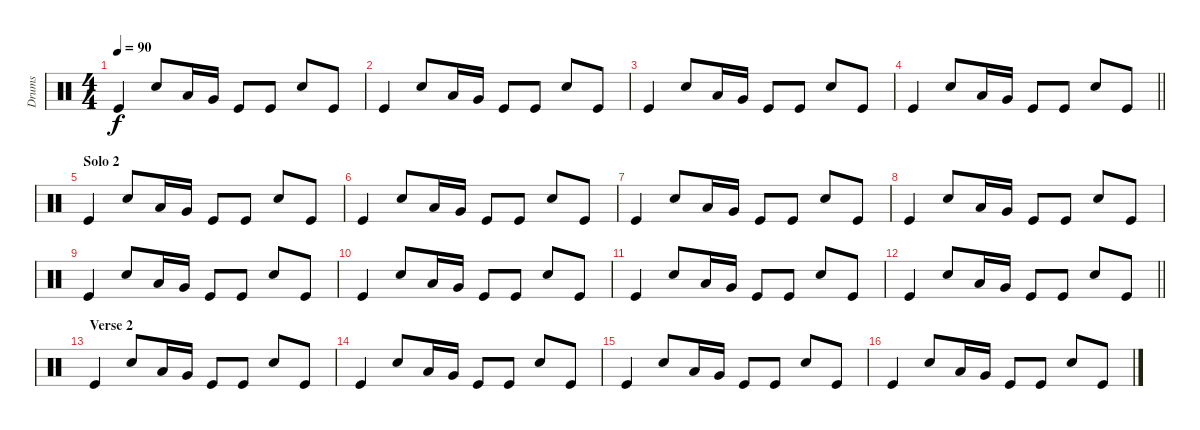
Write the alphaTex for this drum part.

\track ("Drums" "Drums") {instrument percussion}
\staff {score}
\articulation defaults
\ts (4 4)
\tempo 90
\clef neutral
\ks aminor "Kick (hit)".4{dy f} "Hand Clap (hit)".8 "Low Tom (hit)".16 "Very Low Tom (hit)".16 "Kick (hit)".8 "Kick (hit)".8 "Hand Clap (hit)".8 "Kick (hit)".8
|
"Kick (hit)".4 "Hand Clap (hit)".8 "Low Tom (hit)".16 "Very Low Tom (hit)".16 "Kick (hit)".8 "Kick (hit)".8 "Hand Clap (hit)".8 "Kick (hit)".8 |
"Kick (hit)".4 "Hand Clap (hit)".8 "Low Tom (hit)".16 "Very Low Tom (hit)".16 "Kick (hit)".8 "Kick (hit)".8 "Hand Clap (hit)".8 "Kick (hit)".8 |
\barLineRight lightlight "Kick (hit)".4 "Hand Clap (hit)".8 "Low Tom (hit)".16 "Very Low Tom (hit)".16 "Kick (hit)".8 "Kick (hit)".8 "Hand Clap (hit)".8 "Kick (hit)".8
|
\section ("" "Solo 2")
"Kick (hit)".4 "Hand Clap (hit)".8 "Low Tom (hit)".16 "Very Low Tom (hit)".16 "Kick (hit)".8 "Kick (hit)".8 "Hand Clap (hit)".8 "Kick (hit)".8 |
"Kick (hit)".4 "Hand Clap (hit)".8 "Low Tom (hit)".16 "Very Low Tom (hit)".16 "Kick (hit)".8 "Kick (hit)".8 "Hand Clap (hit)".8 "Kick (hit)".8 |
"Kick (hit)".4 "Hand Clap (hit)".8 "Low Tom (hit)".16 "Very Low Tom (hit)".16 "Kick (hit)".8 "Kick (hit)".8 "Hand Clap (hit)".8 "Kick (hit)".8 |
"Kick (hit)".4 "Hand Clap (hit)".8 "Low Tom (hit)".16 "Very Low Tom (hit)".16 "Kick (hit)".8 "Kick (hit)".8 "Hand Clap (hit)".8 "Kick (hit)".8 |
"Kick (hit)".4 "Hand Clap (hit)".8 "Low Tom (hit)".16 "Very Low Tom (hit)".16 "Kick (hit)".8 "Kick (hit)".8 "Hand Clap (hit)".8 "Kick (hit)".8 |
"Kick (hit)".4 "Hand Clap (hit)".8 "Low Tom (hit)".16 "Very Low Tom (hit)".16 "Kick (hit)".8 "Kick (hit)".8 "Hand Clap (hit)".8 "Kick (hit)".8 |
"Kick (hit)".4 "Hand Clap (hit)".8 "Low Tom (hit)".16 "Very Low Tom (hit)".16 "Kick (hit)".8 "Kick (hit)".8 "Hand Clap (hit)".8 "Kick (hit)".8 |
\barLineRight lightlight "Kick (hit)".4 "Hand Clap (hit)".8 "Low Tom (hit)".16 "Very Low Tom (hit)".16 "Kick (hit)".8 "Kick (hit)".8 "Hand Clap (hit)".8 "Kick (hit)".8
|
\section ("" "Verse 2")
"Kick (hit)".4 "Hand Clap (hit)".8 "Low Tom (hit)".16 "Very Low Tom (hit)".16 "Kick (hit)".8 "Kick (hit)".8 "Hand Clap (hit)".8 "Kick (hit)".8 |
"Kick (hit)".4 "Hand Clap (hit)".8 "Low Tom (hit)".16 "Very Low Tom (hit)".16 "Kick (hit)".8 "Kick (hit)".8 "Hand Clap (hit)".8 "Kick (hit)".8 |
"Kick (hit)".4 "Hand Clap (hit)".8 "Low Tom (hit)".16 "Very Low Tom (hit)".16 "Kick (hit)".8 "Kick (hit)".8 "Hand Clap (hit)".8 "Kick (hit)".8 |
"Kick (hit)".4 "Hand Clap (hit)".8 "Low Tom (hit)".16 "Very Low Tom (hit)".16 "Kick (hit)".8 "Kick (hit)".8 "Hand Clap (hit)".8 "Kick (hit)".8
